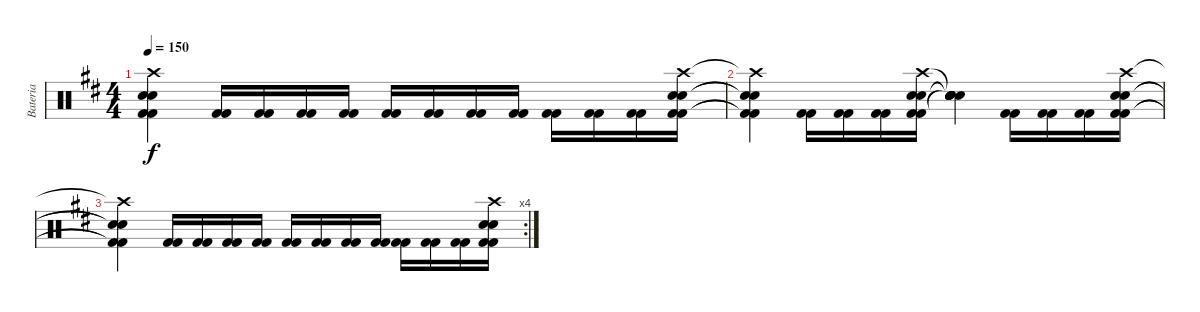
\track ("Bateria" "Bateria") {instrument percussion}
\staff {score}
\articulation defaults
\ts (4 4)
\tempo 150
\clef neutral
\ks d
("Crash high (hit)"{t} "Electric Snare (hit)"{t} "Snare (hit) 2"{t} "Kick (hit) 2"{t} "Kick (hit) 2"{t}).4{dy f} ("Kick (hit) 2" "Kick (hit) 2").16 ("Kick (hit) 2" "Kick (hit) 2").16 ("Kick (hit) 2" "Kick (hit) 2").16 ("Kick (hit) 2" "Kick (hit) 2").16 ("Kick (hit) 2" "Kick (hit) 2").16 ("Kick (hit) 2" "Kick (hit) 2").16 ("Kick (hit) 2" "Kick (hit) 2").16 ("Kick (hit) 2" "Kick (hit) 2").16 ("Kick (hit) 2" "Kick (hit) 2").16 ("Kick (hit) 2" "Kick (hit) 2").16 ("Kick (hit) 2" "Kick (hit) 2").16 ("Crash high (hit)" "Electric Snare (hit)" "Snare (hit) 2" "Kick (hit) 2" "Kick (hit) 2").16 |
("Crash high (hit)"{t} "Electric Snare (hit)"{t} "Snare (hit) 2"{t} "Kick (hit) 2"{t} "Kick (hit) 2"{t}).4 ("Kick (hit) 2" "Kick (hit) 2").16 ("Kick (hit) 2" "Kick (hit) 2").16 ("Kick (hit) 2" "Kick (hit) 2").16 ("Crash high (hit)" "Electric Snare (hit)" "Snare (hit) 2" "Kick (hit) 2" "Kick (hit) 2").16 ("Snare (hit)"{t} "Snare (hit)"{t} "Snare (hit)"{t} "Snare (hit)"{t} "Snare (hit)"{t}).4 ("Kick (hit) 2" "Kick (hit) 2").16 ("Kick (hit) 2" "Kick (hit) 2").16 ("Kick (hit) 2" "Kick (hit) 2").16 ("Crash high (hit)" "Electric Snare (hit)" "Snare (hit) 2" "Kick (hit) 2" "Kick (hit) 2").16 |
\rc 4
("Crash high (hit)"{t} "Electric Snare (hit)"{t} "Snare (hit) 2"{t} "Kick (hit) 2"{t} "Kick (hit) 2"{t}).4 ("Kick (hit) 2" "Kick (hit) 2").16 ("Kick (hit) 2" "Kick (hit) 2").16 ("Kick (hit) 2" "Kick (hit) 2").16 ("Kick (hit) 2" "Kick (hit) 2").16 ("Kick (hit) 2" "Kick (hit) 2").16 ("Kick (hit) 2" "Kick (hit) 2").16 ("Kick (hit) 2" "Kick (hit) 2").16 ("Kick (hit) 2" "Kick (hit) 2").16 ("Kick (hit) 2" "Kick (hit) 2").16 ("Kick (hit) 2" "Kick (hit) 2").16 ("Kick (hit) 2" "Kick (hit) 2").16 ("Crash high (hit)" "Electric Snare (hit)" "Snare (hit) 2" "Kick (hit) 2" "Kick (hit) 2").16
